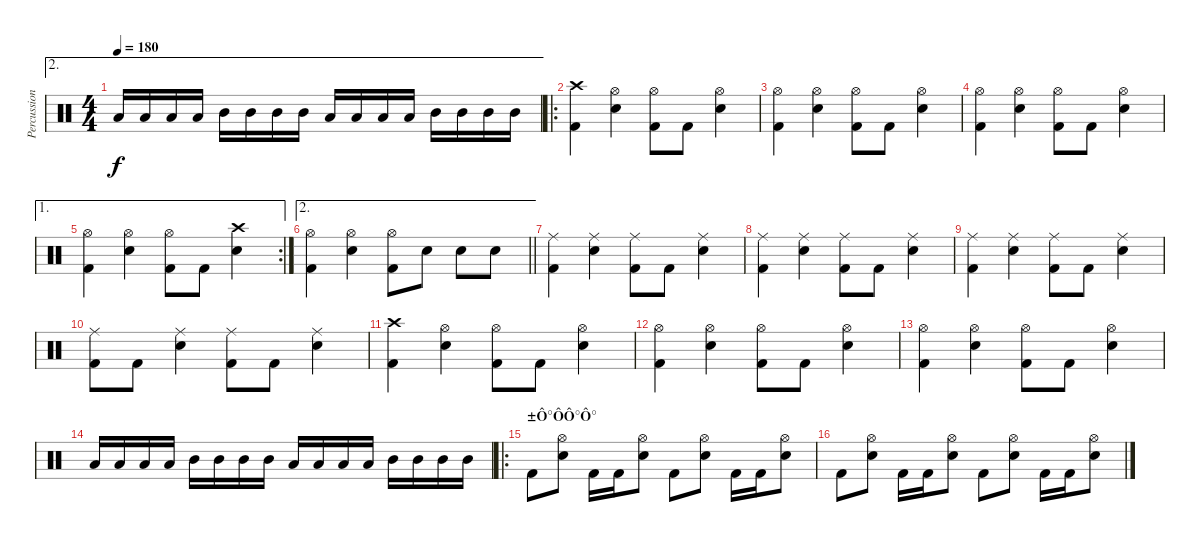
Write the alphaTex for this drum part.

\track ("Percussion" "Percussion") {instrument percussion}
\staff {score}
\articulation defaults
\ae 2
\ts (4 4)
\tempo 180
\clef neutral
\ks c "Low Tom (hit)".16{dy f} "Low Tom (hit)".16 "Low Tom (hit)".16 "Low Tom (hit)".16 "Mid Tom (hit)".16 "Mid Tom (hit)".16 "Mid Tom (hit)".16 "Mid Tom (hit)".16 "Low Tom (hit)".16 "Low Tom (hit)".16 "Low Tom (hit)".16 "Low Tom (hit)".16 "Mid Tom (hit)".16 "Mid Tom (hit)".16 "Mid Tom (hit)".16 "Mid Tom (hit)".16
|
\ro
("Crash high (hit)" "Kick (hit) 2").4 ("Hi-Hat (open)" "Snare (hit) 2").4 ("Hi-Hat (open)" "Kick (hit) 2").8 "Kick (hit) 2".8 ("Hi-Hat (open)" "Snare (hit) 2").4 |
("Hi-Hat (open)" "Kick (hit) 2").4 ("Hi-Hat (open)" "Snare (hit) 2").4 ("Hi-Hat (open)" "Kick (hit) 2").8 "Kick (hit) 2".8 ("Hi-Hat (open)" "Snare (hit) 2").4 |
("Hi-Hat (open)" "Kick (hit) 2").4 ("Hi-Hat (open)" "Snare (hit) 2").4 ("Hi-Hat (open)" "Kick (hit) 2").8 "Kick (hit) 2".8 ("Hi-Hat (open)" "Snare (hit) 2").4 |
\ae 1
\rc 2
("Hi-Hat (open)" "Kick (hit) 2").4 ("Hi-Hat (open)" "Snare (hit) 2").4 ("Hi-Hat (open)" "Kick (hit) 2").8 "Kick (hit) 2".8 ("Crash high (hit)" "Snare (hit) 2").4 |
\ae 2
\barLineRight lightlight
("Hi-Hat (open)" "Kick (hit) 2").4 ("Hi-Hat (open)" "Snare (hit) 2").4 ("Hi-Hat (open)" "Kick (hit) 2").8 "Snare (hit) 2".8 "Snare (hit) 2".8 "Snare (hit) 2".8 |
("Ride (middle)" "Kick (hit) 2").4 ("Ride (middle)" "Snare (hit) 2").4 ("Ride (middle)" "Kick (hit) 2").8 "Kick (hit) 2".8 ("Ride (middle)" "Snare (hit) 2").4 |
("Ride (middle)" "Kick (hit) 2").4 ("Ride (middle)" "Snare (hit) 2").4 ("Ride (middle)" "Kick (hit) 2").8 "Kick (hit) 2".8 ("Ride (middle)" "Snare (hit) 2").4 |
("Ride (middle)" "Kick (hit) 2").4 ("Ride (middle)" "Snare (hit) 2").4 ("Ride (middle)" "Kick (hit) 2").8 "Kick (hit) 2".8 ("Ride (middle)" "Snare (hit) 2").4 |
("Ride (middle)" "Kick (hit) 2").8 "Kick (hit) 2".8 ("Ride (middle)" "Snare (hit) 2").4 ("Ride (middle)" "Kick (hit) 2").8 "Kick (hit) 2".8 ("Ride (middle)" "Snare (hit) 2").4 |
("Crash high (hit)" "Kick (hit) 2").4 ("Hi-Hat (open)" "Snare (hit) 2").4 ("Hi-Hat (open)" "Kick (hit) 2").8 "Kick (hit) 2".8 ("Hi-Hat (open)" "Snare (hit) 2").4 |
("Hi-Hat (open)" "Kick (hit) 2").4 ("Hi-Hat (open)" "Snare (hit) 2").4 ("Hi-Hat (open)" "Kick (hit) 2").8 "Kick (hit) 2".8 ("Hi-Hat (open)" "Snare (hit) 2").4 |
("Hi-Hat (open)" "Kick (hit) 2").4 ("Hi-Hat (open)" "Snare (hit) 2").4 ("Hi-Hat (open)" "Kick (hit) 2").8 "Kick (hit) 2".8 ("Hi-Hat (open)" "Snare (hit) 2").4 |
"Low Tom (hit)".16 "Low Tom (hit)".16 "Low Tom (hit)".16 "Low Tom (hit)".16 "Mid Tom (hit)".16 "Mid Tom (hit)".16 "Mid Tom (hit)".16 "Mid Tom (hit)".16 "Low Tom (hit)".16 "Low Tom (hit)".16 "Low Tom (hit)".16 "Low Tom (hit)".16 "Mid Tom (hit)".16 "Mid Tom (hit)".16 "Mid Tom (hit)".16 "Mid Tom (hit)".16 |
\ro
\section ("" "±Ô°ÔÔ°Ô°")
"Kick (hit) 2".8 ("Hi-Hat (open)" "Snare (hit) 2").8 "Kick (hit) 2".16 "Kick (hit) 2".16 ("Hi-Hat (open)" "Snare (hit) 2").8 "Kick (hit) 2".8 ("Hi-Hat (open)" "Snare (hit) 2").8 "Kick (hit) 2".16 "Kick (hit) 2".16 ("Hi-Hat (open)" "Snare (hit) 2").8 |
"Kick (hit) 2".8 ("Hi-Hat (open)" "Snare (hit) 2").8 "Kick (hit) 2".16 "Kick (hit) 2".16 ("Hi-Hat (open)" "Snare (hit) 2").8 "Kick (hit) 2".8 ("Hi-Hat (open)" "Snare (hit) 2").8 "Kick (hit) 2".16 "Kick (hit) 2".16 ("Hi-Hat (open)" "Snare (hit) 2").8
